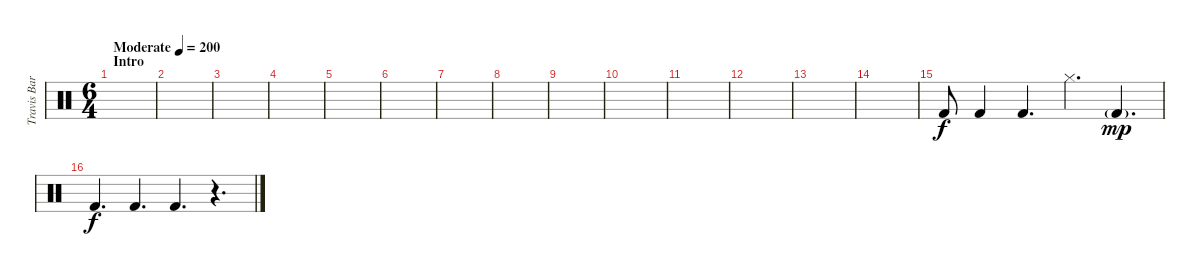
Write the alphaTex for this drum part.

\track ("Travis Barker - Drums" "Travis Bar") {instrument percussion}
\staff {score}
\articulation defaults
\ts (6 4)
\section ("" "Intro")
\tempo (200 "Moderate")
\clef neutral
\ks c
|
|
|
|
|
|
|
|
|
|
|
|
|
|
"Kick (hit) 2".8 "Kick (hit) 2".4 "Kick (hit) 2".4{d} "Hi-Hat (closed)".4{d} "Kick (hit) 2"{g}.4{d dy mp} |
"Kick (hit) 2".4{d dy f} "Kick (hit) 2".4{d} "Kick (hit) 2".4{d} r.4{d}
